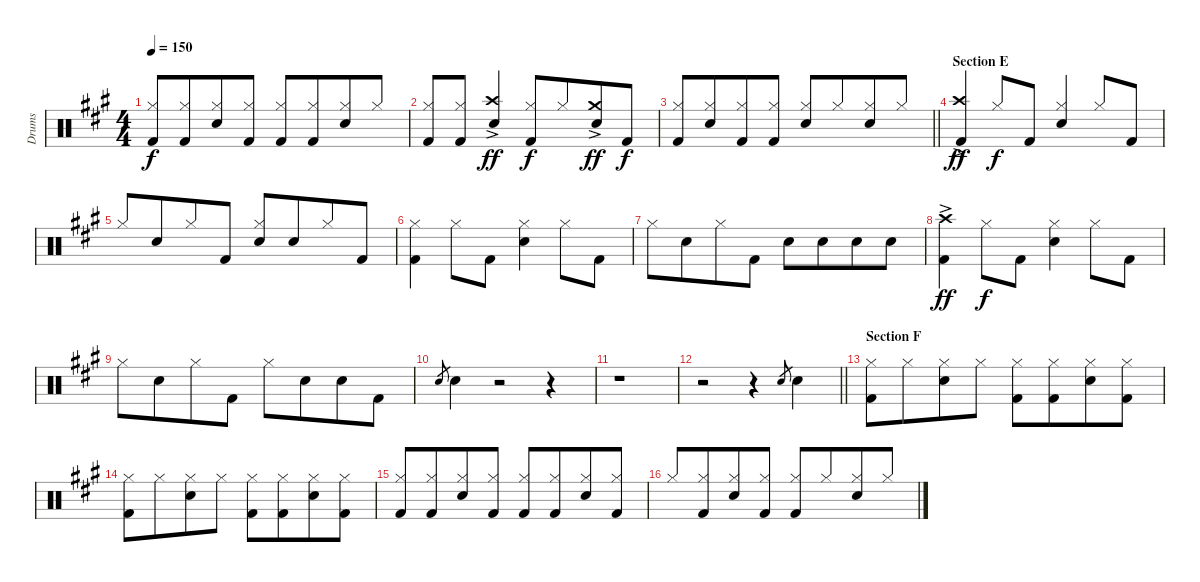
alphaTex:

\track ("Drums" "Drums") {instrument percussion}
\staff {score}
\articulation defaults
\ts (4 4)
\tempo 150
\clef neutral
\ks a
("Hi-Hat (closed)" "Kick (hit) 2").8{dy f beam Up} ("Hi-Hat (closed)" "Kick (hit) 2").8{beam Up beam merge} ("Hi-Hat (closed)" "Snare (hit) 2").8{beam Up} ("Hi-Hat (closed)" "Kick (hit) 2").8{beam Up} ("Hi-Hat (closed)" "Kick (hit) 2").8{beam Up} ("Hi-Hat (closed)" "Kick (hit) 2").8{beam Up beam merge} ("Hi-Hat (closed)" "Snare (hit) 2").8{beam Up} "Hi-Hat (closed)".8{beam Up} |
("Hi-Hat (closed)" "Kick (hit) 2").8{beam Up} ("Hi-Hat (closed)" "Kick (hit) 2").8{beam Up} ("Crash high (hit)"{ac} "Snare (hit) 2").4{dy ff beam Up} ("Hi-Hat (closed)" "Kick (hit) 2").8{dy f beam Up} "Hi-Hat (closed)".8{beam Up beam merge} ("Crash medium (hit)"{ac} "Snare (hit) 2").8{dy ff beam Up} "Kick (hit) 2".8{dy f beam Up} |
\barLineRight lightlight
("Hi-Hat (closed)" "Kick (hit) 2").8{beam Up} ("Hi-Hat (closed)" "Snare (hit) 2").8{beam Up beam merge} ("Hi-Hat (closed)" "Kick (hit) 2").8{beam Up} ("Hi-Hat (closed)" "Kick (hit) 2").8{beam Up} ("Hi-Hat (closed)" "Snare (hit) 2").8{beam Up} "Hi-Hat (closed)".8{beam Up beam merge} ("Hi-Hat (closed)" "Snare (hit) 2").8{beam Up} "Hi-Hat (closed)".8{beam Up} |
\section ("" "Section E")
("Crash high (hit)"{ac} "Kick (hit) 2").4{dy ff beam Up} "Hi-Hat (closed)".8{dy f beam Up} "Kick (hit) 2".8{beam Up} ("Hi-Hat (closed)" "Snare (hit) 2").4{beam Up} "Hi-Hat (closed)".8{beam Up} "Kick (hit) 2".8{beam Up} |
"Hi-Hat (closed)".8{beam Up} "Snare (hit) 2".8{beam Up beam merge} "Hi-Hat (closed)".8{beam Up} "Kick (hit) 2".8{beam Up} ("Hi-Hat (closed)" "Snare (hit) 2").8{beam Up} "Snare (hit) 2".8{beam Up beam merge} "Hi-Hat (closed)".8{beam Up} "Kick (hit) 2".8{beam Up} |
("Hi-Hat (closed)" "Kick (hit) 2").4 "Hi-Hat (closed)".8 "Kick (hit) 2".8 ("Hi-Hat (closed)" "Snare (hit) 2").4 "Hi-Hat (closed)".8 "Kick (hit) 2".8 |
"Hi-Hat (closed)".8 "Snare (hit) 2".8{beam merge} "Hi-Hat (closed)".8 "Kick (hit) 2".8 "Snare (hit) 2".8 "Snare (hit) 2".8{beam merge} "Snare (hit) 2".8 "Snare (hit) 2".8 |
("Crash high (hit)"{ac} "Kick (hit) 2").4{dy ff} "Hi-Hat (closed)".8{dy f} "Kick (hit) 2".8 ("Hi-Hat (closed)" "Snare (hit) 2").4 "Hi-Hat (closed)".8 "Kick (hit) 2".8 |
"Hi-Hat (closed)".8 "Snare (hit) 2".8{beam merge} "Hi-Hat (closed)".8 "Kick (hit) 2".8 "Hi-Hat (closed)".8 "Snare (hit) 2".8{beam merge} "Snare (hit) 2".8 "Kick (hit) 2".8 |
"Snare (hit) 2".8{gr} "Snare (hit) 2".4 r.2 r.4 |
r.1 |
\barLineRight lightlight
r.2 r.4 "Snare (hit) 2".8{gr} "Snare (hit) 2".4 |
\section ("" "Section F")
("Hi-Hat (closed)" "Kick (hit) 2").8 "Hi-Hat (closed)".8{beam merge} ("Hi-Hat (closed)" "Snare (hit) 2").8 "Hi-Hat (closed)".8 ("Hi-Hat (closed)" "Kick (hit) 2").8 ("Hi-Hat (closed)" "Kick (hit) 2").8{beam merge} ("Hi-Hat (closed)" "Snare (hit) 2").8 ("Hi-Hat (closed)" "Kick (hit) 2").8 |
("Hi-Hat (closed)" "Kick (hit) 2").8 "Hi-Hat (closed)".8{beam merge} ("Hi-Hat (closed)" "Snare (hit) 2").8 "Hi-Hat (closed)".8 ("Hi-Hat (closed)" "Kick (hit) 2").8 ("Hi-Hat (closed)" "Kick (hit) 2").8{beam merge} ("Hi-Hat (closed)" "Snare (hit) 2").8 ("Hi-Hat (closed)" "Kick (hit) 2").8 |
("Hi-Hat (closed)" "Kick (hit) 2").8{beam Up} ("Hi-Hat (closed)" "Kick (hit) 2").8{beam Up beam merge} ("Hi-Hat (closed)" "Snare (hit) 2").8{beam Up} ("Hi-Hat (closed)" "Kick (hit) 2").8{beam Up} ("Hi-Hat (closed)" "Kick (hit) 2").8{beam Up} ("Hi-Hat (closed)" "Kick (hit) 2").8{beam Up beam merge} ("Hi-Hat (closed)" "Snare (hit) 2").8{beam Up} ("Hi-Hat (closed)" "Kick (hit) 2").8{beam Up} |
"Hi-Hat (closed)".8{beam Up} ("Hi-Hat (closed)" "Kick (hit) 2").8{beam Up beam merge} ("Hi-Hat (closed)" "Snare (hit) 2").8{beam Up} ("Hi-Hat (closed)" "Kick (hit) 2").8{beam Up} ("Hi-Hat (closed)" "Kick (hit) 2").8{beam Up} "Hi-Hat (closed)".8{beam Up beam merge} ("Hi-Hat (closed)" "Snare (hit) 2").8{beam Up} "Hi-Hat (closed)".8{beam Up}
